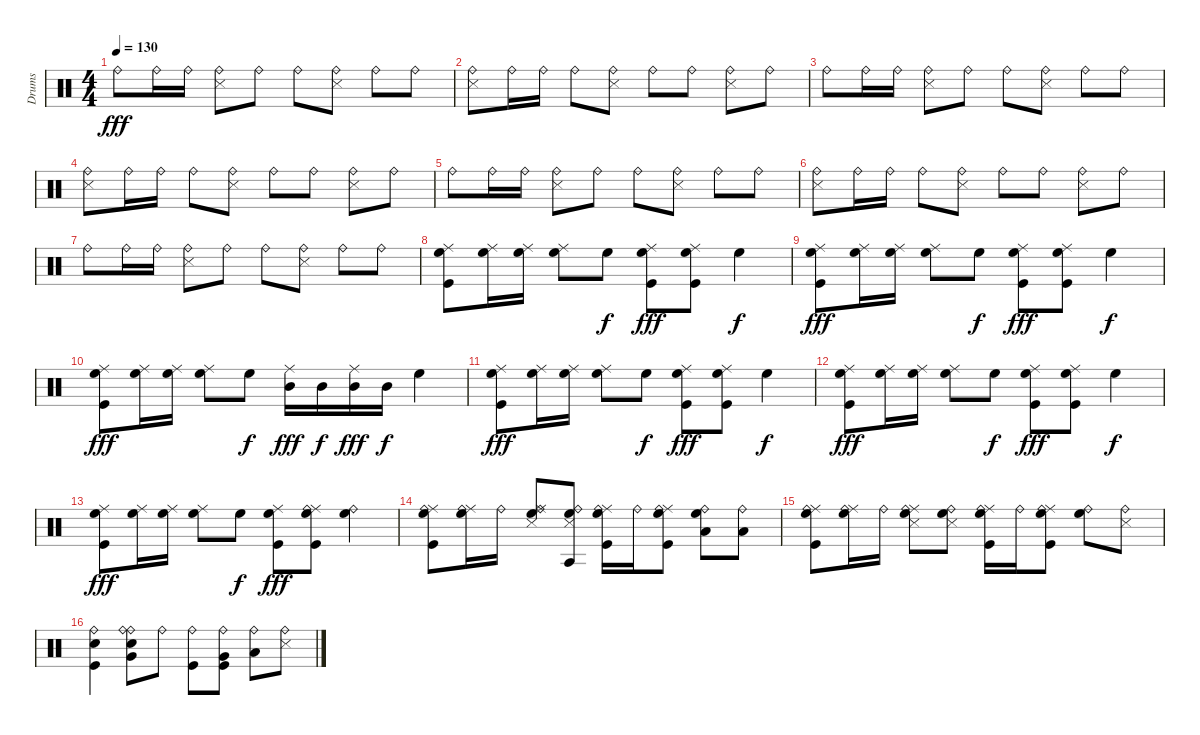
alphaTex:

\track ("Drums" "Drums") {instrument percussion}
\staff {score}
\articulation defaults
\ts (4 4)
\tempo 130
\clef neutral
\ks c "Ride (bell)".8{dy fff} "Ride (bell)".16 "Ride (bell)".16
("Ride (bell)" "Snare (side stick) 3").8 "Ride (bell)".8 "Ride (bell)".8 ("Ride (bell)" "Snare (side stick) 3").8 "Ride (bell)".8 "Ride (bell)".8 |
("Ride (bell)" "Snare (side stick) 3").8 "Ride (bell)".16 "Ride (bell)".16 "Ride (bell)".8 ("Ride (bell)" "Snare (side stick) 3").8 "Ride (bell)".8 "Ride (bell)".8 ("Ride (bell)" "Snare (side stick) 3").8 "Ride (bell)".8 |
"Ride (bell)".8 "Ride (bell)".16 "Ride (bell)".16 ("Ride (bell)" "Snare (side stick) 3").8 "Ride (bell)".8 "Ride (bell)".8 ("Ride (bell)" "Snare (side stick) 3").8 "Ride (bell)".8 "Ride (bell)".8 |
("Ride (bell)" "Snare (side stick) 3").8 "Ride (bell)".16 "Ride (bell)".16 "Ride (bell)".8 ("Ride (bell)" "Snare (side stick) 3").8 "Ride (bell)".8 "Ride (bell)".8 ("Ride (bell)" "Snare (side stick) 3").8 "Ride (bell)".8 |
"Ride (bell)".8 "Ride (bell)".16 "Ride (bell)".16 ("Ride (bell)" "Snare (side stick) 3").8 "Ride (bell)".8 "Ride (bell)".8 ("Ride (bell)" "Snare (side stick) 3").8 "Ride (bell)".8 "Ride (bell)".8 |
("Ride (bell)" "Snare (side stick) 3").8 "Ride (bell)".16 "Ride (bell)".16 "Ride (bell)".8 ("Ride (bell)" "Snare (side stick) 3").8 "Ride (bell)".8 "Ride (bell)".8 ("Ride (bell)" "Snare (side stick) 3").8 "Ride (bell)".8 |
"Ride (bell)".8 "Ride (bell)".16 "Ride (bell)".16 ("Ride (bell)" "Snare (side stick) 3").8 "Ride (bell)".8 "Ride (bell)".8 ("Ride (bell)" "Snare (side stick) 3").8 "Ride (bell)".8 "Ride (bell)".8 |
("Ride (middle)" "High Floor Tom (hit)" "Kick (hit)").8 ("Ride (middle)" "High Floor Tom (hit)").16 ("Ride (middle)" "High Floor Tom (hit)").16 ("Ride (middle)" "High Floor Tom (hit)").8 "High Floor Tom (hit)".8{dy f} ("Ride (middle)" "High Floor Tom (hit)" "Kick (hit)").8{dy fff} ("Ride (middle)" "High Floor Tom (hit)" "Kick (hit)").8 "High Floor Tom (hit)".4{dy f} |
("Ride (middle)" "High Floor Tom (hit)" "Kick (hit)").8{dy fff} ("Ride (middle)" "High Floor Tom (hit)").16 ("Ride (middle)" "High Floor Tom (hit)").16 ("Ride (middle)" "High Floor Tom (hit)").8 "High Floor Tom (hit)".8{dy f} ("Ride (middle)" "High Floor Tom (hit)" "Kick (hit)").8{dy fff} ("Ride (middle)" "High Floor Tom (hit)" "Kick (hit)").8 "High Floor Tom (hit)".4{dy f} |
("Ride (middle)" "High Floor Tom (hit)" "Kick (hit)").8{dy fff} ("Ride (middle)" "High Floor Tom (hit)").16 ("Ride (middle)" "High Floor Tom (hit)").16 ("Ride (middle)" "High Floor Tom (hit)").8 "High Floor Tom (hit)".8{dy f} ("Ride (middle)" "Mid Tom (hit)").16{dy fff} "Mid Tom (hit)".16{dy f} ("Ride (middle)" "Mid Tom (hit)").16{dy fff} "Mid Tom (hit)".16{dy f} "High Floor Tom (hit)".4 |
("Ride (middle)" "High Floor Tom (hit)" "Kick (hit)").8{dy fff} ("Ride (middle)" "High Floor Tom (hit)").16 ("Ride (middle)" "High Floor Tom (hit)").16 ("Ride (middle)" "High Floor Tom (hit)").8 "High Floor Tom (hit)".8{dy f} ("Ride (middle)" "High Floor Tom (hit)" "Kick (hit)").8{dy fff} ("Ride (middle)" "High Floor Tom (hit)" "Kick (hit)").8 "High Floor Tom (hit)".4{dy f} |
("Ride (middle)" "High Floor Tom (hit)" "Kick (hit)").8{dy fff} ("Ride (middle)" "High Floor Tom (hit)").16 ("Ride (middle)" "High Floor Tom (hit)").16 ("Ride (middle)" "High Floor Tom (hit)").8 "High Floor Tom (hit)".8{dy f} ("Ride (middle)" "High Floor Tom (hit)" "Kick (hit)").8{dy fff} ("Ride (middle)" "High Floor Tom (hit)" "Kick (hit)").8 "High Floor Tom (hit)".4{dy f} |
("Ride (middle)" "High Floor Tom (hit)" "Kick (hit)").8{dy fff} ("Ride (middle)" "High Floor Tom (hit)").16 ("Ride (middle)" "High Floor Tom (hit)").16 ("Ride (middle)" "High Floor Tom (hit)").8 "High Floor Tom (hit)".8{dy f} ("Ride (middle)" "High Floor Tom (hit)" "Kick (hit)").8{dy fff} ("Ride (middle)" "High Floor Tom (hit)" "Ride (bell)" "Kick (hit)").8 ("High Floor Tom (hit)" "Ride (bell)").4 |
("Ride (middle)" "High Floor Tom (hit)" "Ride (bell)" "Kick (hit)").8 ("Ride (middle)" "High Floor Tom (hit)" "Ride (bell)").16 "Ride (bell)".16 ("Ride (middle)" "High Floor Tom (hit)" "Ride (bell)" "Snare (side stick) 3").8 ("High Floor Tom (hit)" "Ride (bell)" "Agogo tow (hit)" "Snare (side stick) 3").8 ("Ride (middle)" "High Floor Tom (hit)" "Ride (bell)" "Kick (hit)").16 "Ride (bell)".16 ("Ride (middle)" "High Floor Tom (hit)" "Ride (bell)" "Kick (hit)").8 ("High Floor Tom (hit)" "Ride (bell)" "Low Tom (hit)").8 ("Ride (bell)" "Low Tom (hit)").8 |
("Ride (middle)" "High Floor Tom (hit)" "Ride (bell)" "Kick (hit)").8 ("Ride (middle)" "High Floor Tom (hit)" "Ride (bell)").16 "Ride (bell)".16 ("Ride (middle)" "High Floor Tom (hit)" "Ride (bell)" "Snare (side stick) 3").8 ("High Floor Tom (hit)" "Ride (bell)" "Snare (side stick) 3").8 ("Ride (middle)" "High Floor Tom (hit)" "Ride (bell)" "Kick (hit)").16 "Ride (bell)".16 ("Ride (middle)" "High Floor Tom (hit)" "Ride (bell)" "Kick (hit)").8 ("High Floor Tom (hit)" "Ride (bell)").8 ("Ride (bell)" "Snare (side stick) 3").8 |
("Ride (bell)" "Snare (hit) 2" "Kick (hit)").4 ("Ride (bell)" "Very Low Tom (hit)" "Ride (bell)" "Snare (hit) 2").8 "Ride (bell)".8 ("Ride (bell)" "Kick (hit)").8 ("Very Low Tom (hit)" "Ride (bell)" "Kick (hit)").8 ("Low Tom (hit)" "Ride (bell)").8 ("Ride (bell)" "Snare (side stick) 3").8
